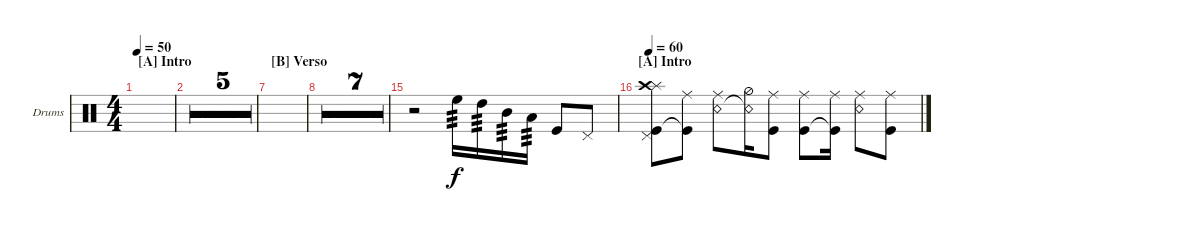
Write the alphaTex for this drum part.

\defaultSystemsLayout 4
\bracketExtendMode groupsimilarinstruments
\firstSystemTrackNameOrientation horizontal
\otherSystemsTrackNameOrientation horizontal
\track ("Drum" "Drums") {multiBarRest instrument percussion}
\staff {score}
\articulation defaults
\ts (4 4)
\section ("A" "Intro")
\tempo 50
\clef neutral
\ks c
|
|
|
|
|
|
\section ("B" "Verso")
|
|
|
|
|
|
|
|
r.2 "High Floor Tom (hit)".16{tp 3} "High Tom (hit)".16{tp 3} "Mid Tom (hit)".16{tp 3} "Low Tom (hit)".16{tp 3} "Kick (hit)".8 "Pedal Hi-Hat (hit)".8 |
\section ("A" "Intro")
\tempo 60
("Kick (hit)" "Pedal Hi-Hat (hit)" "Splash (hit)" "Crash high (hit)").8 ("Kick (hit)"{t} "Ride (middle)").8 ("Snare (rim shot)" "Ride (middle)").8 ("Snare (rim shot)"{t} "Hi-Hat (half)").16 ("Kick (hit)" "Ride (middle)").8 ("Kick (hit)" "Ride (middle)").8 ("Kick (hit)"{t} "Ride (middle)").16 ("Snare (rim shot)" "Ride (middle)").8 ("Kick (hit)" "Ride (middle)").8
